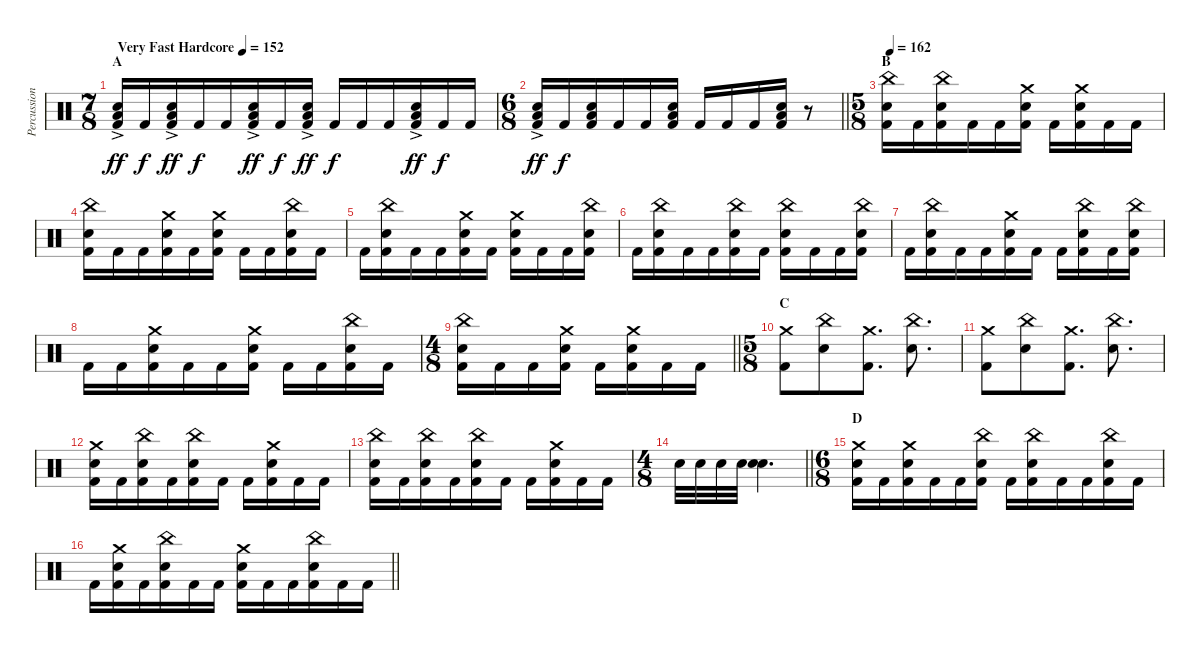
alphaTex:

\track ("Percussion" "Percussion") {instrument percussion}
\staff {score}
\articulation defaults
\ts (7 8)
\section ("" "A")
\tempo (152 "Very Fast Hardcore")
\clef neutral
\ks c
("Electric Snare (hit)"{ac} "Low Floor Tom (hit)" "Kick (hit) 2").16{dy ff} "Kick (hit) 2".16{dy f} ("Electric Snare (hit)"{ac} "Low Floor Tom (hit)" "Kick (hit) 2").16{dy ff} "Kick (hit) 2".16{dy f} "Kick (hit) 2".16 ("Electric Snare (hit)"{ac} "Low Floor Tom (hit)" "Kick (hit) 2").16{dy ff} "Kick (hit) 2".16{dy f} ("Electric Snare (hit)"{ac} "Low Floor Tom (hit)" "Kick (hit) 2").16{dy ff} "Kick (hit) 2".16{dy f} "Kick (hit) 2".16 "Kick (hit) 2".16 ("Electric Snare (hit)"{ac} "Low Floor Tom (hit)" "Kick (hit) 2").16{dy ff} "Kick (hit) 2".16{dy f} "Kick (hit) 2".16 |
\ts (6 8)
\barLineRight lightlight
("Electric Snare (hit)"{ac} "Low Floor Tom (hit)" "Kick (hit) 2").16{dy ff} "Kick (hit) 2".16{dy f} ("Electric Snare (hit)" "Low Floor Tom (hit)" "Kick (hit) 2").16 "Kick (hit) 2".16 "Kick (hit) 2".16 ("Electric Snare (hit)" "Low Floor Tom (hit)" "Kick (hit) 2").16 "Kick (hit) 2".16 "Kick (hit) 2".16 "Kick (hit) 2".16 ("Electric Snare (hit)" "Low Floor Tom (hit)" "Kick (hit) 2").16 r.8 |
\ts (5 8)
\section ("" "B")
\tempo 162
("China (hit)" "Electric Snare (hit)" "Kick (hit) 2").16 "Kick (hit) 2".16 ("China (hit)" "Electric Snare (hit)" "Kick (hit) 2").16 "Kick (hit) 2".16 "Kick (hit) 2".16 ("Crash medium (hit)" "Electric Snare (hit)" "Kick (hit) 2").16 "Kick (hit) 2".16 ("Crash medium (hit)" "Electric Snare (hit)" "Kick (hit) 2").16 "Kick (hit) 2".16 "Kick (hit) 2".16 |
("China (hit)" "Electric Snare (hit)" "Kick (hit) 2").16 "Kick (hit) 2".16 "Kick (hit) 2".16 ("Crash medium (hit)" "Electric Snare (hit)" "Kick (hit) 2").16 "Kick (hit) 2".16 ("Crash medium (hit)" "Electric Snare (hit)" "Kick (hit) 2").16 "Kick (hit) 2".16 "Kick (hit) 2".16 ("China (hit)" "Electric Snare (hit)" "Kick (hit) 2").16 "Kick (hit) 2".16 |
"Kick (hit) 2".16 ("China (hit)" "Electric Snare (hit)" "Kick (hit) 2").16 "Kick (hit) 2".16 "Kick (hit) 2".16 ("Crash medium (hit)" "Electric Snare (hit)" "Kick (hit) 2").16 "Kick (hit) 2".16 ("Crash medium (hit)" "Electric Snare (hit)" "Kick (hit) 2").16 "Kick (hit) 2".16 "Kick (hit) 2".16 ("China (hit)" "Electric Snare (hit)" "Kick (hit) 2").16 |
"Kick (hit) 2".16 ("China (hit)" "Electric Snare (hit)" "Kick (hit) 2").16 "Kick (hit) 2".16 "Kick (hit) 2".16 ("China (hit)" "Electric Snare (hit)" "Kick (hit) 2").16 "Kick (hit) 2".16 ("China (hit)" "Electric Snare (hit)" "Kick (hit) 2").16 "Kick (hit) 2".16 "Kick (hit) 2".16 ("China (hit)" "Electric Snare (hit)" "Kick (hit) 2").16 |
"Kick (hit) 2".16 ("China (hit)" "Electric Snare (hit)" "Kick (hit) 2").16 "Kick (hit) 2".16 "Kick (hit) 2".16 ("Crash medium (hit)" "Electric Snare (hit)" "Kick (hit) 2").16 "Kick (hit) 2".16 "Kick (hit) 2".16 ("China (hit)" "Electric Snare (hit)" "Kick (hit) 2").16 "Kick (hit) 2".16 ("China (hit)" "Electric Snare (hit)" "Kick (hit) 2").16 |
"Kick (hit) 2".16 "Kick (hit) 2".16 ("Crash medium (hit)" "Electric Snare (hit)" "Kick (hit) 2").16 "Kick (hit) 2".16 "Kick (hit) 2".16 ("Crash medium (hit)" "Electric Snare (hit)" "Kick (hit) 2").16 "Kick (hit) 2".16 "Kick (hit) 2".16 ("China (hit)" "Electric Snare (hit)" "Kick (hit) 2").16 "Kick (hit) 2".16 |
\ts (4 8)
\barLineRight lightlight
("China (hit)" "Electric Snare (hit)" "Kick (hit) 2").16 "Kick (hit) 2".16 "Kick (hit) 2".16 ("Crash medium (hit)" "Electric Snare (hit)" "Kick (hit) 2").16 "Kick (hit) 2".16 ("Crash medium (hit)" "Electric Snare (hit)" "Kick (hit) 2").16 "Kick (hit) 2".16 "Kick (hit) 2".16 |
\ts (5 8)
\section ("" "C")
("Crash medium (hit)" "Kick (hit) 2").8 ("China (hit)" "Electric Snare (hit)").8 ("Crash medium (hit)" "Kick (hit) 2").8{d} ("China (hit)" "Electric Snare (hit)").8{d} |
("Crash medium (hit)" "Kick (hit) 2").8 ("China (hit)" "Electric Snare (hit)").8 ("Crash medium (hit)" "Kick (hit) 2").8{d} ("China (hit)" "Electric Snare (hit)").8{d} |
("Crash medium (hit)" "Electric Snare (hit)" "Kick (hit) 2").16 "Kick (hit) 2".16 ("China (hit)" "Electric Snare (hit)" "Kick (hit) 2").16 "Kick (hit) 2".16 ("China (hit)" "Electric Snare (hit)" "Kick (hit) 2").16 "Kick (hit) 2".16 "Kick (hit) 2".16 ("Crash medium (hit)" "Electric Snare (hit)" "Kick (hit) 2").16 "Kick (hit) 2".16 "Kick (hit) 2".16 |
("China (hit)" "Electric Snare (hit)" "Kick (hit) 2").16 "Kick (hit) 2".16 ("China (hit)" "Electric Snare (hit)" "Kick (hit) 2").16 "Kick (hit) 2".16 ("China (hit)" "Electric Snare (hit)" "Kick (hit) 2").16 "Kick (hit) 2".16 "Kick (hit) 2".16 ("Crash medium (hit)" "Electric Snare (hit)" "Kick (hit) 2").16 "Kick (hit) 2".16 "Kick (hit) 2".16 |
\ts (4 8)
\barLineRight lightlight "Electric Snare (hit)".32 "Electric Snare (hit)".32 "Electric Snare (hit)".32 "Electric Snare (hit)".32
("Electric Snare (hit)" "Electric Snare (hit)").4{d} |
\ts (6 8)
\section ("" "D")
("Crash medium (hit)" "Electric Snare (hit)" "Kick (hit) 2").16 "Kick (hit) 2".16 ("Crash medium (hit)" "Electric Snare (hit)" "Kick (hit) 2").16 "Kick (hit) 2".16 "Kick (hit) 2".16 ("China (hit)" "Electric Snare (hit)" "Kick (hit) 2").16 "Kick (hit) 2".16 ("China (hit)" "Electric Snare (hit)" "Kick (hit) 2").16 "Kick (hit) 2".16 "Kick (hit) 2".16 ("China (hit)" "Electric Snare (hit)" "Kick (hit) 2").16 "Kick (hit) 2".16 |
\barLineRight lightlight "Kick (hit) 2".16
("Crash medium (hit)" "Electric Snare (hit)" "Kick (hit) 2").16 "Kick (hit) 2".16 ("China (hit)" "Electric Snare (hit)" "Kick (hit) 2").16 "Kick (hit) 2".16 "Kick (hit) 2".16 ("Crash medium (hit)" "Electric Snare (hit)" "Kick (hit) 2").16 "Kick (hit) 2".16 "Kick (hit) 2".16 ("China (hit)" "Electric Snare (hit)" "Kick (hit) 2").16 "Kick (hit) 2".16 "Kick (hit) 2".16
